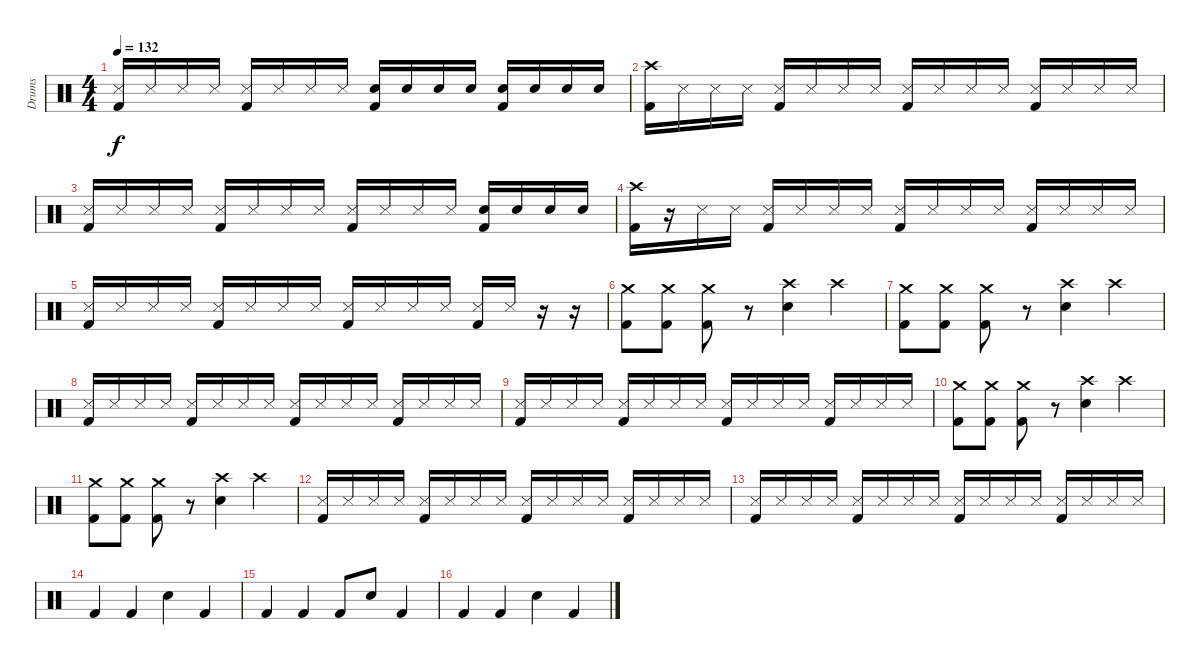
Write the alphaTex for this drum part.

\track ("Drums" "Drums") {instrument percussion}
\staff {score}
\articulation defaults
\ts (4 4)
\tempo 132
\clef neutral
\ks c
("Snare (side stick) 3" "Kick (hit) 2").16{dy f} "Snare (side stick) 3".16 "Snare (side stick) 3".16 "Snare (side stick) 3".16 ("Snare (side stick) 3" "Kick (hit) 2").16 "Snare (side stick) 3".16 "Snare (side stick) 3".16 "Snare (side stick) 3".16 ("Electric Snare (hit)" "Kick (hit) 2").16 "Electric Snare (hit)".16 "Electric Snare (hit)".16 "Electric Snare (hit)".16 ("Electric Snare (hit)" "Kick (hit) 2").16 "Electric Snare (hit)".16 "Electric Snare (hit)".16 "Electric Snare (hit)".16 |
("Crash high (hit)" "Kick (hit) 2").16 "Snare (side stick) 3".16 "Snare (side stick) 3".16 "Snare (side stick) 3".16 ("Snare (side stick) 3" "Kick (hit) 2").16 "Snare (side stick) 3".16 "Snare (side stick) 3".16 "Snare (side stick) 3".16 ("Snare (side stick) 3" "Kick (hit) 2").16 "Snare (side stick) 3".16 "Snare (side stick) 3".16 "Snare (side stick) 3".16 ("Snare (side stick) 3" "Kick (hit) 2").16 "Snare (side stick) 3".16 "Snare (side stick) 3".16 "Snare (side stick) 3".16 |
("Snare (side stick) 3" "Kick (hit) 2").16 "Snare (side stick) 3".16 "Snare (side stick) 3".16 "Snare (side stick) 3".16 ("Snare (side stick) 3" "Kick (hit) 2").16 "Snare (side stick) 3".16 "Snare (side stick) 3".16 "Snare (side stick) 3".16 ("Snare (side stick) 3" "Kick (hit) 2").16 "Snare (side stick) 3".16 "Snare (side stick) 3".16 "Snare (side stick) 3".16 ("Electric Snare (hit)" "Kick (hit) 2").16 "Electric Snare (hit)".16 "Electric Snare (hit)".16 "Electric Snare (hit)".16 |
("Crash high (hit)" "Kick (hit) 2").16 r.16 "Snare (side stick) 3".16 "Snare (side stick) 3".16 ("Snare (side stick) 3" "Kick (hit) 2").16 "Snare (side stick) 3".16 "Snare (side stick) 3".16 "Snare (side stick) 3".16 ("Snare (side stick) 3" "Kick (hit) 2").16 "Snare (side stick) 3".16 "Snare (side stick) 3".16 "Snare (side stick) 3".16 ("Snare (side stick) 3" "Kick (hit) 2").16 "Snare (side stick) 3".16 "Snare (side stick) 3".16 "Snare (side stick) 3".16 |
("Snare (side stick) 3" "Kick (hit) 2").16 "Snare (side stick) 3".16 "Snare (side stick) 3".16 "Snare (side stick) 3".16 ("Snare (side stick) 3" "Kick (hit) 2").16 "Snare (side stick) 3".16 "Snare (side stick) 3".16 "Snare (side stick) 3".16 ("Snare (side stick) 3" "Kick (hit) 2").16 "Snare (side stick) 3".16 "Snare (side stick) 3".16 "Snare (side stick) 3".16 ("Snare (side stick) 3" "Kick (hit) 2").16 "Snare (side stick) 3".16 r.16 r.16 |
("Crash medium (hit)" "Kick (hit) 2").8 ("Crash medium (hit)" "Kick (hit) 2").8 ("Crash medium (hit)" "Kick (hit) 2").8 r.8 ("Crash high (hit)" "Electric Snare (hit)").4 "Crash high (hit)".4 |
("Crash medium (hit)" "Kick (hit) 2").8 ("Crash medium (hit)" "Kick (hit) 2").8 ("Crash medium (hit)" "Kick (hit) 2").8 r.8 ("Crash high (hit)" "Electric Snare (hit)").4 "Crash high (hit)".4 |
("Snare (side stick) 3" "Kick (hit) 2").16 "Snare (side stick) 3".16 "Snare (side stick) 3".16 "Snare (side stick) 3".16 ("Snare (side stick) 3" "Kick (hit) 2").16 "Snare (side stick) 3".16 "Snare (side stick) 3".16 "Snare (side stick) 3".16 ("Snare (side stick) 3" "Kick (hit) 2").16 "Snare (side stick) 3".16 "Snare (side stick) 3".16 "Snare (side stick) 3".16 ("Snare (side stick) 3" "Kick (hit) 2").16 "Snare (side stick) 3".16 "Snare (side stick) 3".16 "Snare (side stick) 3".16 |
("Snare (side stick) 3" "Kick (hit) 2").16 "Snare (side stick) 3".16 "Snare (side stick) 3".16 "Snare (side stick) 3".16 ("Snare (side stick) 3" "Kick (hit) 2").16 "Snare (side stick) 3".16 "Snare (side stick) 3".16 "Snare (side stick) 3".16 ("Snare (side stick) 3" "Kick (hit) 2").16 "Snare (side stick) 3".16 "Snare (side stick) 3".16 "Snare (side stick) 3".16 ("Snare (side stick) 3" "Kick (hit) 2").16 "Snare (side stick) 3".16 "Snare (side stick) 3".16 "Snare (side stick) 3".16 |
("Crash medium (hit)" "Kick (hit) 2").8 ("Crash medium (hit)" "Kick (hit) 2").8 ("Crash medium (hit)" "Kick (hit) 2").8 r.8 ("Crash high (hit)" "Electric Snare (hit)").4 "Crash high (hit)".4 |
("Crash medium (hit)" "Kick (hit) 2").8 ("Crash medium (hit)" "Kick (hit) 2").8 ("Crash medium (hit)" "Kick (hit) 2").8 r.8 ("Crash high (hit)" "Electric Snare (hit)").4 "Crash high (hit)".4 |
("Snare (side stick) 3" "Kick (hit) 2").16 "Snare (side stick) 3".16 "Snare (side stick) 3".16 "Snare (side stick) 3".16 ("Snare (side stick) 3" "Kick (hit) 2").16 "Snare (side stick) 3".16 "Snare (side stick) 3".16 "Snare (side stick) 3".16 ("Snare (side stick) 3" "Kick (hit) 2").16 "Snare (side stick) 3".16 "Snare (side stick) 3".16 "Snare (side stick) 3".16 ("Snare (side stick) 3" "Kick (hit) 2").16 "Snare (side stick) 3".16 "Snare (side stick) 3".16 "Snare (side stick) 3".16 |
("Snare (side stick) 3" "Kick (hit) 2").16 "Snare (side stick) 3".16 "Snare (side stick) 3".16 "Snare (side stick) 3".16 ("Snare (side stick) 3" "Kick (hit) 2").16 "Snare (side stick) 3".16 "Snare (side stick) 3".16 "Snare (side stick) 3".16 ("Snare (side stick) 3" "Kick (hit) 2").16 "Snare (side stick) 3".16 "Snare (side stick) 3".16 "Snare (side stick) 3".16 ("Snare (side stick) 3" "Kick (hit) 2").16 "Snare (side stick) 3".16 "Snare (side stick) 3".16 "Snare (side stick) 3".16 |
"Kick (hit) 2".4 "Kick (hit) 2".4 "Electric Snare (hit)".4 "Kick (hit) 2".4 |
"Kick (hit) 2".4 "Kick (hit) 2".4 "Kick (hit) 2".8 "Electric Snare (hit)".8 "Kick (hit) 2".4 |
"Kick (hit) 2".4 "Kick (hit) 2".4 "Electric Snare (hit)".4 "Kick (hit) 2".4
